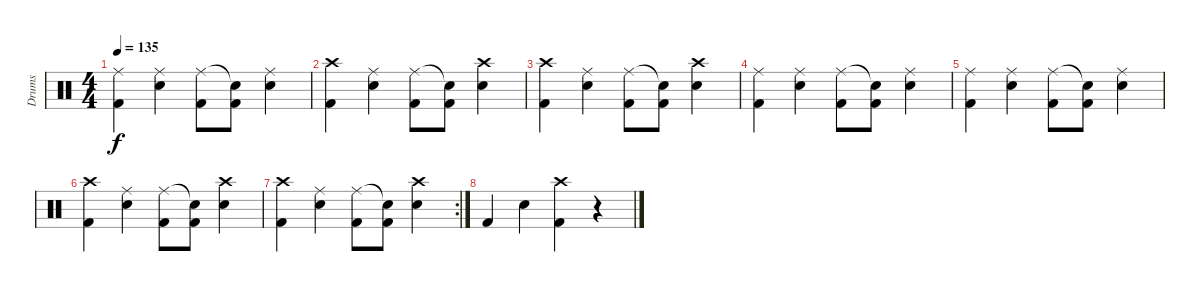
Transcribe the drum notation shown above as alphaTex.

\track ("Drums" "Drums") {instrument percussion}
\staff {score}
\articulation defaults
\ts (4 4)
\tempo 135
\clef neutral
\ks c
("Ride (middle)" "Kick (hit) 2").4{dy f} ("Ride (middle)" "Snare (hit) 2").4 ("Ride (middle)" "Kick (hit) 2").8 ("Snare (hit)"{t} "Kick (hit) 2").8 ("Ride (middle)" "Snare (hit) 2").4 |
("Crash high (hit)" "Kick (hit) 2").4 ("Ride (middle)" "Snare (hit) 2").4 ("Ride (middle)" "Kick (hit) 2").8 ("Snare (hit)"{t} "Kick (hit) 2").8 ("Crash high (hit)" "Snare (hit) 2").4 |
("Crash high (hit)" "Kick (hit) 2").4 ("Ride (middle)" "Snare (hit) 2").4 ("Ride (middle)" "Kick (hit) 2").8 ("Snare (hit)"{t} "Kick (hit) 2").8 ("Crash high (hit)" "Snare (hit) 2").4 |
("Ride (middle)" "Kick (hit) 2").4 ("Ride (middle)" "Snare (hit) 2").4 ("Ride (middle)" "Kick (hit) 2").8 ("Snare (hit)"{t} "Kick (hit) 2").8 ("Ride (middle)" "Snare (hit) 2").4 |
("Ride (middle)" "Kick (hit) 2").4 ("Ride (middle)" "Snare (hit) 2").4 ("Ride (middle)" "Kick (hit) 2").8 ("Snare (hit)"{t} "Kick (hit) 2").8 ("Ride (middle)" "Snare (hit) 2").4 |
("Crash high (hit)" "Kick (hit) 2").4 ("Ride (middle)" "Snare (hit) 2").4 ("Ride (middle)" "Kick (hit) 2").8 ("Snare (hit)"{t} "Kick (hit) 2").8 ("Crash high (hit)" "Snare (hit) 2").4 |
\rc 2
("Crash high (hit)" "Kick (hit) 2").4 ("Ride (middle)" "Snare (hit) 2").4 ("Ride (middle)" "Kick (hit) 2").8 ("Snare (hit)"{t} "Kick (hit) 2").8 ("Crash high (hit)" "Snare (hit) 2").4 |
"Kick (hit) 2".4 "Snare (hit) 2".4 ("Crash high (hit)" "Kick (hit) 2").4 r.4
